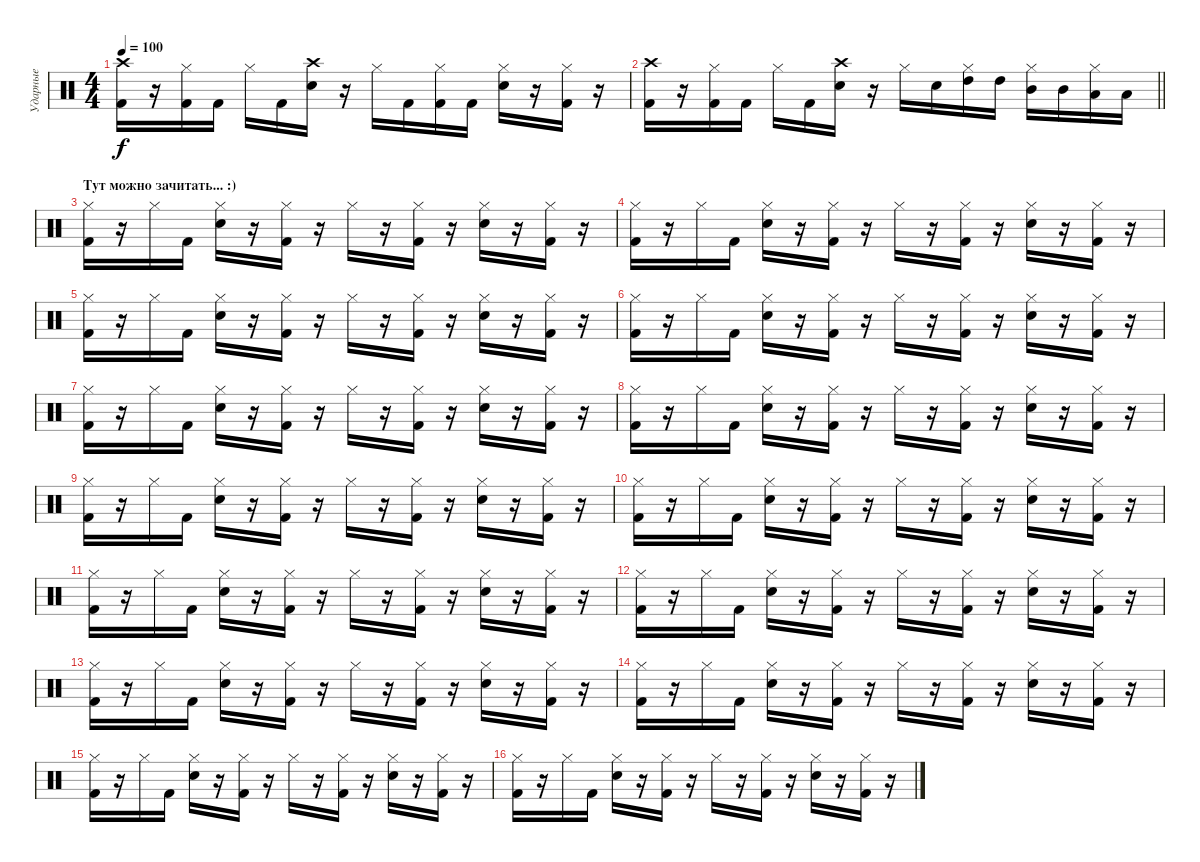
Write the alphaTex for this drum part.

\track ("Ударные" "Ударные") {instrument percussion}
\staff {score}
\articulation defaults
\ts (4 4)
\tempo 100
\clef neutral
\ks c
("Crash high (hit)" "Kick (hit) 2").16{dy f} r.16 ("Hi-Hat (closed)" "Kick (hit) 2").16 "Kick (hit) 2".16 "Hi-Hat (closed)".16 "Kick (hit) 2".16 ("Crash high (hit)" "Electric Snare (hit)").16 r.16 "Hi-Hat (closed)".16 "Kick (hit) 2".16 ("Hi-Hat (closed)" "Kick (hit) 2").16 "Kick (hit) 2".16 ("Hi-Hat (closed)" "Electric Snare (hit)").16 r.16 ("Hi-Hat (closed)" "Kick (hit) 2").16 r.16 |
\barLineRight lightlight
("Crash high (hit)" "Kick (hit) 2").16 r.16 ("Hi-Hat (closed)" "Kick (hit) 2").16 "Kick (hit) 2".16 "Hi-Hat (closed)".16 "Kick (hit) 2".16 ("Crash high (hit)" "Electric Snare (hit)").16 r.16 "Hi-Hat (closed)".16 "Electric Snare (hit)".16 ("Hi-Hat (closed)" "High Tom (hit)").16 "High Tom (hit)".16 ("Hi-Hat (closed)" "Mid Tom (hit)").16 "Mid Tom (hit)".16 ("Hi-Hat (closed)" "Low Tom (hit)").16 "Low Tom (hit)".16 |
\section ("" "Тут можно зачитать... :)")
("Hi-Hat (closed)" "Kick (hit) 2").16 r.16 "Hi-Hat (closed)".16 "Kick (hit) 2".16 ("Hi-Hat (closed)" "Electric Snare (hit)").16 r.16 ("Hi-Hat (closed)" "Kick (hit) 2").16 r.16 "Hi-Hat (closed)".16 r.16 ("Hi-Hat (closed)" "Kick (hit) 2").16 r.16 ("Hi-Hat (closed)" "Electric Snare (hit)").16 r.16 ("Hi-Hat (closed)" "Kick (hit) 2").16 r.16 |
("Hi-Hat (closed)" "Kick (hit) 2").16 r.16 "Hi-Hat (closed)".16 "Kick (hit) 2".16 ("Hi-Hat (closed)" "Electric Snare (hit)").16 r.16 ("Hi-Hat (closed)" "Kick (hit) 2").16 r.16 "Hi-Hat (closed)".16 r.16 ("Hi-Hat (closed)" "Kick (hit) 2").16 r.16 ("Hi-Hat (closed)" "Electric Snare (hit)").16 r.16 ("Hi-Hat (closed)" "Kick (hit) 2").16 r.16 |
("Hi-Hat (closed)" "Kick (hit) 2").16 r.16 "Hi-Hat (closed)".16 "Kick (hit) 2".16 ("Hi-Hat (closed)" "Electric Snare (hit)").16 r.16 ("Hi-Hat (closed)" "Kick (hit) 2").16 r.16 "Hi-Hat (closed)".16 r.16 ("Hi-Hat (closed)" "Kick (hit) 2").16 r.16 ("Hi-Hat (closed)" "Electric Snare (hit)").16 r.16 ("Hi-Hat (closed)" "Kick (hit) 2").16 r.16 |
("Hi-Hat (closed)" "Kick (hit) 2").16 r.16 "Hi-Hat (closed)".16 "Kick (hit) 2".16 ("Hi-Hat (closed)" "Electric Snare (hit)").16 r.16 ("Hi-Hat (closed)" "Kick (hit) 2").16 r.16 "Hi-Hat (closed)".16 r.16 ("Hi-Hat (closed)" "Kick (hit) 2").16 r.16 ("Hi-Hat (closed)" "Electric Snare (hit)").16 r.16 ("Hi-Hat (closed)" "Kick (hit) 2").16 r.16 |
("Hi-Hat (closed)" "Kick (hit) 2").16 r.16 "Hi-Hat (closed)".16 "Kick (hit) 2".16 ("Hi-Hat (closed)" "Electric Snare (hit)").16 r.16 ("Hi-Hat (closed)" "Kick (hit) 2").16 r.16 "Hi-Hat (closed)".16 r.16 ("Hi-Hat (closed)" "Kick (hit) 2").16 r.16 ("Hi-Hat (closed)" "Electric Snare (hit)").16 r.16 ("Hi-Hat (closed)" "Kick (hit) 2").16 r.16 |
("Hi-Hat (closed)" "Kick (hit) 2").16 r.16 "Hi-Hat (closed)".16 "Kick (hit) 2".16 ("Hi-Hat (closed)" "Electric Snare (hit)").16 r.16 ("Hi-Hat (closed)" "Kick (hit) 2").16 r.16 "Hi-Hat (closed)".16 r.16 ("Hi-Hat (closed)" "Kick (hit) 2").16 r.16 ("Hi-Hat (closed)" "Electric Snare (hit)").16 r.16 ("Hi-Hat (closed)" "Kick (hit) 2").16 r.16 |
("Hi-Hat (closed)" "Kick (hit) 2").16 r.16 "Hi-Hat (closed)".16 "Kick (hit) 2".16 ("Hi-Hat (closed)" "Electric Snare (hit)").16 r.16 ("Hi-Hat (closed)" "Kick (hit) 2").16 r.16 "Hi-Hat (closed)".16 r.16 ("Hi-Hat (closed)" "Kick (hit) 2").16 r.16 ("Hi-Hat (closed)" "Electric Snare (hit)").16 r.16 ("Hi-Hat (closed)" "Kick (hit) 2").16 r.16 |
("Hi-Hat (closed)" "Kick (hit) 2").16 r.16 "Hi-Hat (closed)".16 "Kick (hit) 2".16 ("Hi-Hat (closed)" "Electric Snare (hit)").16 r.16 ("Hi-Hat (closed)" "Kick (hit) 2").16 r.16 "Hi-Hat (closed)".16 r.16 ("Hi-Hat (closed)" "Kick (hit) 2").16 r.16 ("Hi-Hat (closed)" "Electric Snare (hit)").16 r.16 ("Hi-Hat (closed)" "Kick (hit) 2").16 r.16 |
("Hi-Hat (closed)" "Kick (hit) 2").16 r.16 "Hi-Hat (closed)".16 "Kick (hit) 2".16 ("Hi-Hat (closed)" "Electric Snare (hit)").16 r.16 ("Hi-Hat (closed)" "Kick (hit) 2").16 r.16 "Hi-Hat (closed)".16 r.16 ("Hi-Hat (closed)" "Kick (hit) 2").16 r.16 ("Hi-Hat (closed)" "Electric Snare (hit)").16 r.16 ("Hi-Hat (closed)" "Kick (hit) 2").16 r.16 |
("Hi-Hat (closed)" "Kick (hit) 2").16 r.16 "Hi-Hat (closed)".16 "Kick (hit) 2".16 ("Hi-Hat (closed)" "Electric Snare (hit)").16 r.16 ("Hi-Hat (closed)" "Kick (hit) 2").16 r.16 "Hi-Hat (closed)".16 r.16 ("Hi-Hat (closed)" "Kick (hit) 2").16 r.16 ("Hi-Hat (closed)" "Electric Snare (hit)").16 r.16 ("Hi-Hat (closed)" "Kick (hit) 2").16 r.16 |
("Hi-Hat (closed)" "Kick (hit) 2").16 r.16 "Hi-Hat (closed)".16 "Kick (hit) 2".16 ("Hi-Hat (closed)" "Electric Snare (hit)").16 r.16 ("Hi-Hat (closed)" "Kick (hit) 2").16 r.16 "Hi-Hat (closed)".16 r.16 ("Hi-Hat (closed)" "Kick (hit) 2").16 r.16 ("Hi-Hat (closed)" "Electric Snare (hit)").16 r.16 ("Hi-Hat (closed)" "Kick (hit) 2").16 r.16 |
("Hi-Hat (closed)" "Kick (hit) 2").16 r.16 "Hi-Hat (closed)".16 "Kick (hit) 2".16 ("Hi-Hat (closed)" "Electric Snare (hit)").16 r.16 ("Hi-Hat (closed)" "Kick (hit) 2").16 r.16 "Hi-Hat (closed)".16 r.16 ("Hi-Hat (closed)" "Kick (hit) 2").16 r.16 ("Hi-Hat (closed)" "Electric Snare (hit)").16 r.16 ("Hi-Hat (closed)" "Kick (hit) 2").16 r.16 |
("Hi-Hat (closed)" "Kick (hit) 2").16 r.16 "Hi-Hat (closed)".16 "Kick (hit) 2".16 ("Hi-Hat (closed)" "Electric Snare (hit)").16 r.16 ("Hi-Hat (closed)" "Kick (hit) 2").16 r.16 "Hi-Hat (closed)".16 r.16 ("Hi-Hat (closed)" "Kick (hit) 2").16 r.16 ("Hi-Hat (closed)" "Electric Snare (hit)").16 r.16 ("Hi-Hat (closed)" "Kick (hit) 2").16 r.16 |
("Hi-Hat (closed)" "Kick (hit) 2").16 r.16 "Hi-Hat (closed)".16 "Kick (hit) 2".16 ("Hi-Hat (closed)" "Electric Snare (hit)").16 r.16 ("Hi-Hat (closed)" "Kick (hit) 2").16 r.16 "Hi-Hat (closed)".16 r.16 ("Hi-Hat (closed)" "Kick (hit) 2").16 r.16 ("Hi-Hat (closed)" "Electric Snare (hit)").16 r.16 ("Hi-Hat (closed)" "Kick (hit) 2").16 r.16
